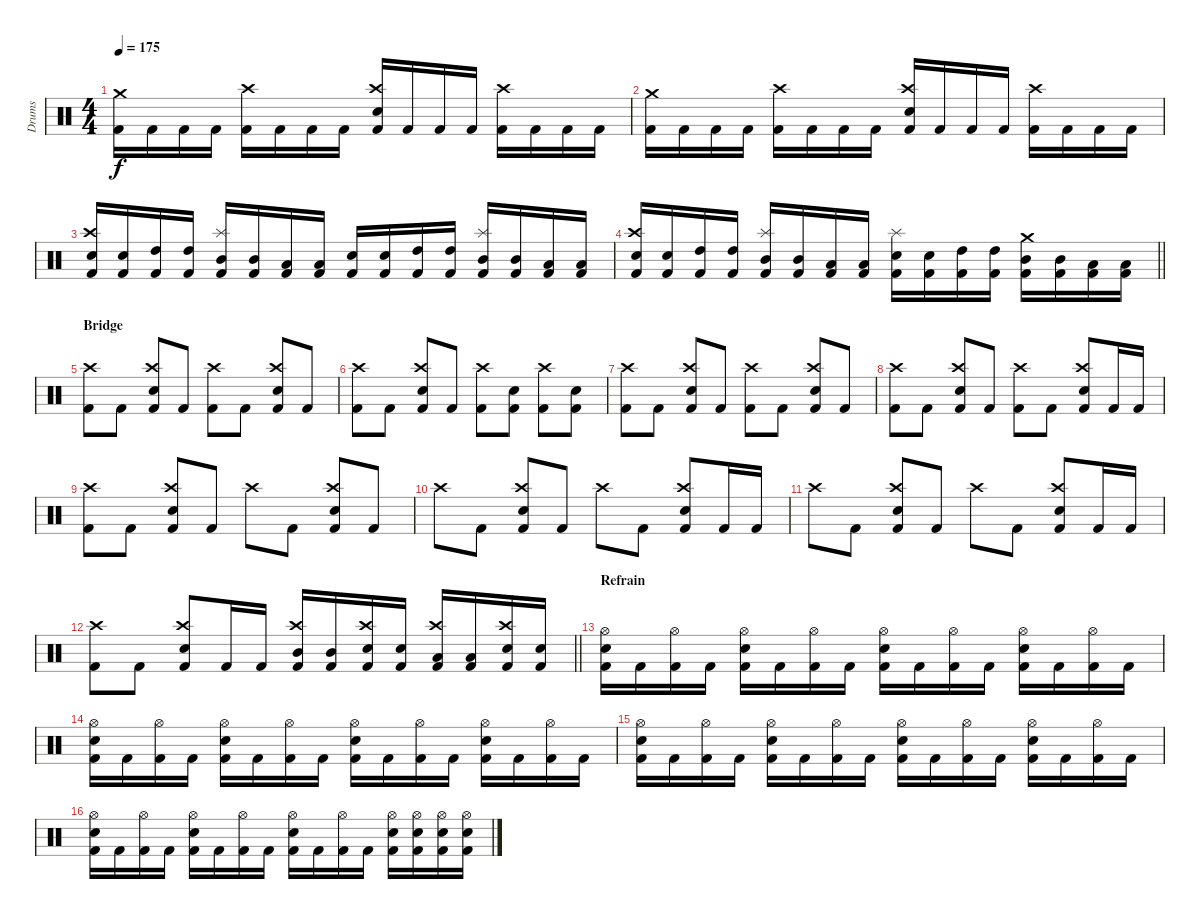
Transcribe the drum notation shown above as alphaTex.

\track ("Drums" "Drums") {instrument percussion}
\staff {score}
\articulation defaults
\ts (4 4)
\tempo 175
\clef neutral
\ks c
("Crash medium (hit)" "Kick (hit) 2").16{dy f} "Kick (hit) 2".16 "Kick (hit) 2".16 "Kick (hit) 2".16 ("Crash high (hit)" "Kick (hit) 2").16 "Kick (hit) 2".16 "Kick (hit) 2".16 "Kick (hit) 2".16 ("Crash high (hit)" "Snare (hit) 2" "Kick (hit) 2").16 "Kick (hit) 2".16 "Kick (hit) 2".16 "Kick (hit) 2".16 ("Crash high (hit)" "Kick (hit) 2").16 "Kick (hit) 2".16 "Kick (hit) 2".16 "Kick (hit) 2".16 |
("Crash medium (hit)" "Kick (hit) 2").16 "Kick (hit) 2".16 "Kick (hit) 2".16 "Kick (hit) 2".16 ("Crash high (hit)" "Kick (hit) 2").16 "Kick (hit) 2".16 "Kick (hit) 2".16 "Kick (hit) 2".16 ("Crash high (hit)" "Snare (hit) 2" "Kick (hit) 2").16 "Kick (hit) 2".16 "Kick (hit) 2".16 "Kick (hit) 2".16 ("Crash high (hit)" "Kick (hit) 2").16 "Kick (hit) 2".16 "Kick (hit) 2".16 "Kick (hit) 2".16 |
("Crash high (hit)" "Snare (hit) 2" "Kick (hit) 2").16 ("Snare (hit) 2" "Kick (hit) 2").16 ("High Tom (hit)" "Kick (hit) 2").16 ("High Tom (hit)" "Kick (hit) 2").16 ("Splash (hit)" "Mid Tom (hit)" "Kick (hit) 2").16 ("Mid Tom (hit)" "Kick (hit) 2").16 ("Low Tom (hit)" "Kick (hit) 2").16 ("Low Tom (hit)" "Kick (hit) 2").16 ("Snare (hit) 2" "Kick (hit) 2").16 ("Snare (hit) 2" "Kick (hit) 2").16 ("High Tom (hit)" "Kick (hit) 2").16 ("High Tom (hit)" "Kick (hit) 2").16 ("Splash (hit)" "Mid Tom (hit)" "Kick (hit) 2").16 ("Mid Tom (hit)" "Kick (hit) 2").16 ("Low Tom (hit)" "Kick (hit) 2").16 ("Low Tom (hit)" "Kick (hit) 2").16 |
\barLineRight lightlight
("Crash high (hit)" "Snare (hit) 2" "Kick (hit) 2").16 ("Snare (hit) 2" "Kick (hit) 2").16 ("High Tom (hit)" "Kick (hit) 2").16 ("High Tom (hit)" "Kick (hit) 2").16 ("Splash (hit)" "Mid Tom (hit)" "Kick (hit) 2").16 ("Mid Tom (hit)" "Kick (hit) 2").16 ("Low Tom (hit)" "Kick (hit) 2").16 ("Low Tom (hit)" "Kick (hit) 2").16 ("Splash (hit)" "Snare (hit) 2" "Kick (hit) 2").16 ("Snare (hit) 2" "Kick (hit) 2").16 ("High Tom (hit)" "Kick (hit) 2").16 ("High Tom (hit)" "Kick (hit) 2").16 ("Crash medium (hit)" "Mid Tom (hit)" "Kick (hit) 2").16 ("Mid Tom (hit)" "Kick (hit) 2").16 ("Low Tom (hit)" "Kick (hit) 2").16 ("Low Tom (hit)" "Kick (hit) 2").16 |
\section ("" "Bridge")
("Crash high (hit)" "Kick (hit) 2").8 "Kick (hit) 2".8 ("Crash high (hit)" "Snare (hit) 2" "Kick (hit) 2").8 "Kick (hit) 2".8 ("Crash high (hit)" "Kick (hit) 2").8 "Kick (hit) 2".8 ("Crash high (hit)" "Snare (hit) 2" "Kick (hit) 2").8 "Kick (hit) 2".8 |
("Crash high (hit)" "Kick (hit) 2").8 "Kick (hit) 2".8 ("Crash high (hit)" "Snare (hit) 2" "Kick (hit) 2").8 "Kick (hit) 2".8 ("Crash high (hit)" "Kick (hit) 2").8 ("Snare (hit) 2" "Kick (hit) 2").8 ("Crash high (hit)" "Kick (hit) 2").8 ("Snare (hit) 2" "Kick (hit) 2").8 |
("Crash high (hit)" "Kick (hit) 2").8 "Kick (hit) 2".8 ("Crash high (hit)" "Snare (hit) 2" "Kick (hit) 2").8 "Kick (hit) 2".8 ("Crash high (hit)" "Kick (hit) 2").8 "Kick (hit) 2".8 ("Crash high (hit)" "Snare (hit) 2" "Kick (hit) 2").8 "Kick (hit) 2".8 |
("Crash high (hit)" "Kick (hit) 2").8 "Kick (hit) 2".8 ("Crash high (hit)" "Snare (hit) 2" "Kick (hit) 2").8 "Kick (hit) 2".8 ("Crash high (hit)" "Kick (hit) 2").8 "Kick (hit) 2".8 ("Crash high (hit)" "Snare (hit) 2" "Kick (hit) 2").8 "Kick (hit) 2".16 "Kick (hit) 2".16 |
("Crash high (hit)" "Kick (hit) 2").8 "Kick (hit) 2".8 ("Crash high (hit)" "Snare (hit) 2" "Kick (hit) 2").8 "Kick (hit) 2".8 "Crash high (hit)".8 "Kick (hit) 2".8 ("Crash high (hit)" "Snare (hit) 2" "Kick (hit) 2").8 "Kick (hit) 2".8 |
"Crash high (hit)".8 "Kick (hit) 2".8 ("Crash high (hit)" "Snare (hit) 2" "Kick (hit) 2").8 "Kick (hit) 2".8 "Crash high (hit)".8 "Kick (hit) 2".8 ("Crash high (hit)" "Snare (hit) 2" "Kick (hit) 2").8 "Kick (hit) 2".16 "Kick (hit) 2".16 |
"Crash high (hit)".8 "Kick (hit) 2".8 ("Crash high (hit)" "Snare (hit) 2" "Kick (hit) 2").8 "Kick (hit) 2".8 "Crash high (hit)".8 "Kick (hit) 2".8 ("Crash high (hit)" "Snare (hit) 2" "Kick (hit) 2").8 "Kick (hit) 2".16 "Kick (hit) 2".16 |
\barLineRight lightlight
("Crash high (hit)" "Kick (hit) 2").8 "Kick (hit) 2".8 ("Crash high (hit)" "Snare (hit) 2" "Kick (hit) 2").8 "Kick (hit) 2".16 "Kick (hit) 2".16 ("Crash high (hit)" "Mid Tom (hit)" "Kick (hit) 2").16 ("Mid Tom (hit)" "Kick (hit) 2").16 ("Crash high (hit)" "Snare (hit) 2" "Kick (hit) 2").16 ("Snare (hit) 2" "Kick (hit) 2").16 ("Crash high (hit)" "Low Tom (hit)" "Kick (hit) 2").16 ("Low Tom (hit)" "Kick (hit) 2").16 ("Crash high (hit)" "Snare (hit) 2" "Kick (hit) 2").16 ("Snare (hit) 2" "Kick (hit) 2").16 |
\section ("" "Refrain")
("Hi-Hat (open)" "Snare (hit) 2" "Kick (hit) 2").16 "Kick (hit) 2".16 ("Hi-Hat (open)" "Kick (hit) 2").16 "Kick (hit) 2".16 ("Hi-Hat (open)" "Snare (hit) 2" "Kick (hit) 2").16 "Kick (hit) 2".16 ("Hi-Hat (open)" "Kick (hit) 2").16 "Kick (hit) 2".16 ("Hi-Hat (open)" "Snare (hit) 2" "Kick (hit) 2").16 "Kick (hit) 2".16 ("Hi-Hat (open)" "Kick (hit) 2").16 "Kick (hit) 2".16 ("Hi-Hat (open)" "Snare (hit) 2" "Kick (hit) 2").16 "Kick (hit) 2".16 ("Hi-Hat (open)" "Kick (hit) 2").16 "Kick (hit) 2".16 |
("Hi-Hat (open)" "Snare (hit) 2" "Kick (hit) 2").16 "Kick (hit) 2".16 ("Hi-Hat (open)" "Kick (hit) 2").16 "Kick (hit) 2".16 ("Hi-Hat (open)" "Snare (hit) 2" "Kick (hit) 2").16 "Kick (hit) 2".16 ("Hi-Hat (open)" "Kick (hit) 2").16 "Kick (hit) 2".16 ("Hi-Hat (open)" "Snare (hit) 2" "Kick (hit) 2").16 "Kick (hit) 2".16 ("Hi-Hat (open)" "Kick (hit) 2").16 "Kick (hit) 2".16 ("Hi-Hat (open)" "Snare (hit) 2" "Kick (hit) 2").16 "Kick (hit) 2".16 ("Hi-Hat (open)" "Kick (hit) 2").16 "Kick (hit) 2".16 |
("Hi-Hat (open)" "Snare (hit) 2" "Kick (hit) 2").16 "Kick (hit) 2".16 ("Hi-Hat (open)" "Kick (hit) 2").16 "Kick (hit) 2".16 ("Hi-Hat (open)" "Snare (hit) 2" "Kick (hit) 2").16 "Kick (hit) 2".16 ("Hi-Hat (open)" "Kick (hit) 2").16 "Kick (hit) 2".16 ("Hi-Hat (open)" "Snare (hit) 2" "Kick (hit) 2").16 "Kick (hit) 2".16 ("Hi-Hat (open)" "Kick (hit) 2").16 "Kick (hit) 2".16 ("Hi-Hat (open)" "Snare (hit) 2" "Kick (hit) 2").16 "Kick (hit) 2".16 ("Hi-Hat (open)" "Kick (hit) 2").16 "Kick (hit) 2".16 |
("Hi-Hat (open)" "Snare (hit) 2" "Kick (hit) 2").16 "Kick (hit) 2".16 ("Hi-Hat (open)" "Kick (hit) 2").16 "Kick (hit) 2".16 ("Hi-Hat (open)" "Snare (hit) 2" "Kick (hit) 2").16 "Kick (hit) 2".16 ("Hi-Hat (open)" "Kick (hit) 2").16 "Kick (hit) 2".16 ("Hi-Hat (open)" "Snare (hit) 2" "Kick (hit) 2").16 "Kick (hit) 2".16 ("Hi-Hat (open)" "Kick (hit) 2").16 "Kick (hit) 2".16 ("Hi-Hat (open)" "Snare (hit) 2" "Kick (hit) 2").16 ("Hi-Hat (open)" "Snare (hit) 2" "Kick (hit) 2").16 ("Hi-Hat (open)" "Snare (hit) 2" "Kick (hit) 2").16 ("Hi-Hat (open)" "Snare (hit) 2" "Kick (hit) 2").16
